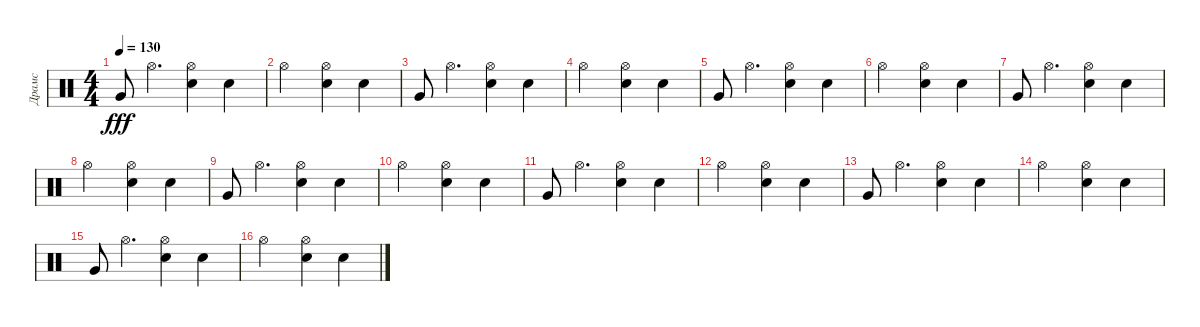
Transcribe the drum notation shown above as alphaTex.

\track ("Драмс" "Драмс") {instrument percussion}
\staff {score}
\articulation defaults
\ts (4 4)
\tempo 130
\clef neutral
\ks c "Very Low Tom (hit)".8{dy fff} "Hi-Hat (open)".4{d}
("Hi-Hat (open)" "Snare (hit) 2").4 "Snare (hit) 2".4 |
"Hi-Hat (open)".2 ("Hi-Hat (open)" "Snare (hit) 2").4 "Snare (hit) 2".4 |
"Very Low Tom (hit)".8 "Hi-Hat (open)".4{d} ("Hi-Hat (open)" "Snare (hit) 2").4 "Snare (hit) 2".4 |
"Hi-Hat (open)".2 ("Hi-Hat (open)" "Snare (hit) 2").4 "Snare (hit) 2".4 |
"Very Low Tom (hit)".8 "Hi-Hat (open)".4{d} ("Hi-Hat (open)" "Snare (hit) 2").4 "Snare (hit) 2".4 |
"Hi-Hat (open)".2 ("Hi-Hat (open)" "Snare (hit) 2").4 "Snare (hit) 2".4 |
"Very Low Tom (hit)".8 "Hi-Hat (open)".4{d} ("Hi-Hat (open)" "Snare (hit) 2").4 "Snare (hit) 2".4 |
"Hi-Hat (open)".2 ("Hi-Hat (open)" "Snare (hit) 2").4 "Snare (hit) 2".4 |
"Very Low Tom (hit)".8 "Hi-Hat (open)".4{d} ("Hi-Hat (open)" "Snare (hit) 2").4 "Snare (hit) 2".4 |
"Hi-Hat (open)".2 ("Hi-Hat (open)" "Snare (hit) 2").4 "Snare (hit) 2".4 |
"Very Low Tom (hit)".8 "Hi-Hat (open)".4{d} ("Hi-Hat (open)" "Snare (hit) 2").4 "Snare (hit) 2".4 |
"Hi-Hat (open)".2 ("Hi-Hat (open)" "Snare (hit) 2").4 "Snare (hit) 2".4 |
"Very Low Tom (hit)".8 "Hi-Hat (open)".4{d} ("Hi-Hat (open)" "Snare (hit) 2").4 "Snare (hit) 2".4 |
"Hi-Hat (open)".2 ("Hi-Hat (open)" "Snare (hit) 2").4 "Snare (hit) 2".4 |
"Very Low Tom (hit)".8 "Hi-Hat (open)".4{d} ("Hi-Hat (open)" "Snare (hit) 2").4 "Snare (hit) 2".4 |
"Hi-Hat (open)".2 ("Hi-Hat (open)" "Snare (hit) 2").4 "Snare (hit) 2".4
